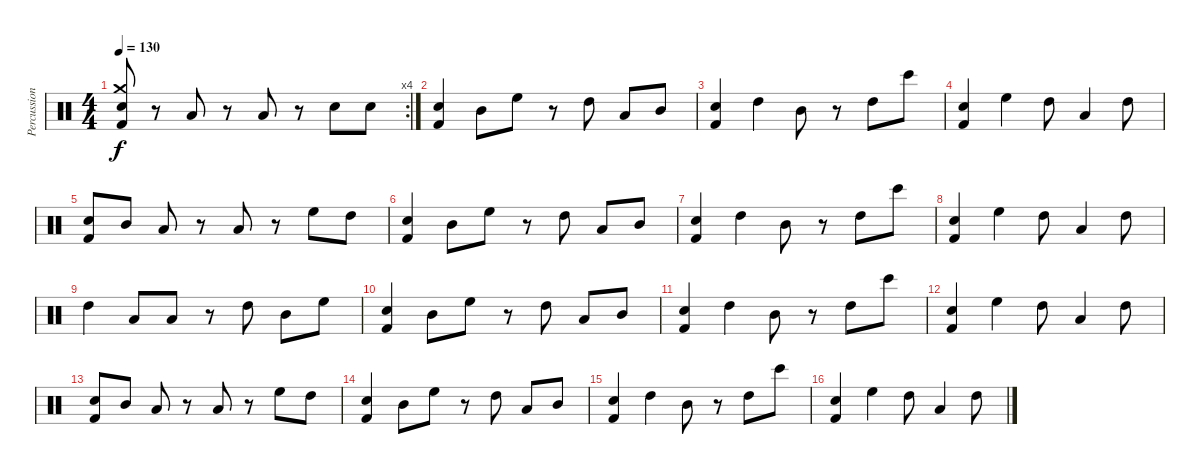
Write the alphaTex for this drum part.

\track ("Percussions" "Percussion") {instrument percussion}
\staff {score}
\articulation defaults
\rc 4
\ts (4 4)
\tempo 130
\clef neutral
\ks c
("Kick (hit) 2" "Crash medium (hit)" "Electric Snare (hit)").8{dy f} r.8 "Low Tom (hit)".8 r.8 "Low Tom (hit)".8 r.8 "Electric Snare (hit)".8 "Electric Snare (hit)".8 |
("Kick (hit) 2" "Electric Snare (hit)").4 "Mid Tom (hit)".8 "High Floor Tom (hit)".8 r.8 "High Tom (hit)".8 "Low Tom (hit)".8 "Mid Tom (hit)".8 |
("Electric Snare (hit)" "Kick (hit) 2").4 "High Tom (hit)".4 "Mid Tom (hit)".8 r.8 "High Tom (hit)".8 "Bongo High (hit)".8 |
("Electric Snare (hit)" "Kick (hit) 2").4 "High Floor Tom (hit)".4 "High Tom (hit)".8 "Low Tom (hit)".4 "High Tom (hit)".8 |
("Kick (hit) 2" "Electric Snare (hit)").8 "Mid Tom (hit)".8 "Low Tom (hit)".8 r.8 "Low Tom (hit)".8 r.8 "High Floor Tom (hit)".8 "High Tom (hit)".8 |
("Kick (hit) 2" "Electric Snare (hit)").4 "Mid Tom (hit)".8 "High Floor Tom (hit)".8 r.8 "High Tom (hit)".8 "Low Tom (hit)".8 "Mid Tom (hit)".8 |
("Electric Snare (hit)" "Kick (hit) 2").4 "High Tom (hit)".4 "Mid Tom (hit)".8 r.8 "High Tom (hit)".8 "Bongo High (hit)".8 |
("Electric Snare (hit)" "Kick (hit) 2").4 "High Floor Tom (hit)".4 "High Tom (hit)".8 "Low Tom (hit)".4 "High Tom (hit)".8 |
"High Tom (hit)".4 "Low Tom (hit)".8 "Low Tom (hit)".8 r.8 "High Tom (hit)".8 "Mid Tom (hit)".8 "High Floor Tom (hit)".8 |
("Kick (hit) 2" "Electric Snare (hit)").4 "Mid Tom (hit)".8 "High Floor Tom (hit)".8 r.8 "High Tom (hit)".8 "Low Tom (hit)".8 "Mid Tom (hit)".8 |
("Electric Snare (hit)" "Kick (hit) 2").4 "High Tom (hit)".4 "Mid Tom (hit)".8 r.8 "High Tom (hit)".8 "Bongo High (hit)".8 |
("Electric Snare (hit)" "Kick (hit) 2").4 "High Floor Tom (hit)".4 "High Tom (hit)".8 "Low Tom (hit)".4 "High Tom (hit)".8 |
("Kick (hit) 2" "Electric Snare (hit)").8 "Mid Tom (hit)".8 "Low Tom (hit)".8 r.8 "Low Tom (hit)".8 r.8 "High Floor Tom (hit)".8 "High Tom (hit)".8 |
("Kick (hit) 2" "Electric Snare (hit)").4 "Mid Tom (hit)".8 "High Floor Tom (hit)".8 r.8 "High Tom (hit)".8 "Low Tom (hit)".8 "Mid Tom (hit)".8 |
("Electric Snare (hit)" "Kick (hit) 2").4 "High Tom (hit)".4 "Mid Tom (hit)".8 r.8 "High Tom (hit)".8 "Bongo High (hit)".8 |
("Electric Snare (hit)" "Kick (hit) 2").4 "High Floor Tom (hit)".4 "High Tom (hit)".8 "Low Tom (hit)".4 "High Tom (hit)".8
